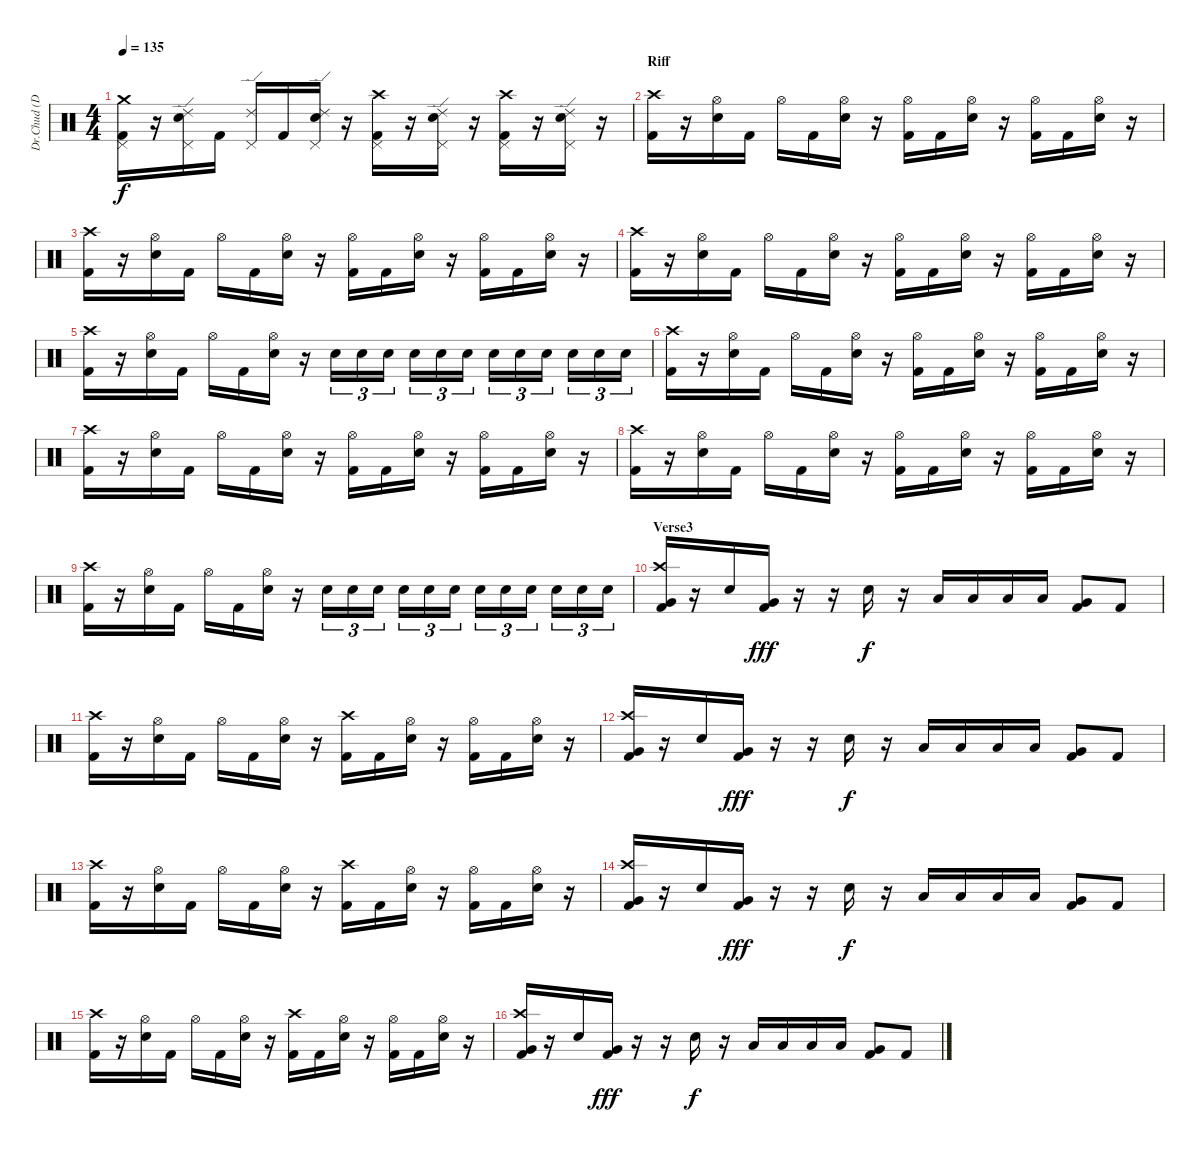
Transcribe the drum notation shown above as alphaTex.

\track ("Dr.Chud (Drums)" "Dr.Chud (D") {instrument percussion}
\staff {score}
\articulation defaults
\ts (4 4)
\tempo 135
\clef neutral
\ks c
("Crash medium (hit)" "Pedal Hi-Hat (hit)" "Kick (hit) 2").16{dy f} r.16 ("Ride (edge) 2" "Snare (hit) 2" "Pedal Hi-Hat (hit)").16 "Kick (hit) 2".16 ("Ride (edge) 2" "Pedal Hi-Hat (hit)").16 "Kick (hit) 2".16 ("Ride (edge) 2" "Snare (hit) 2" "Pedal Hi-Hat (hit)").16 r.16 ("Crash high (hit)" "Pedal Hi-Hat (hit)" "Kick (hit) 2").16 r.16 ("Ride (edge) 2" "Snare (hit) 2" "Pedal Hi-Hat (hit)").16 r.16 ("Crash high (hit)" "Pedal Hi-Hat (hit)" "Kick (hit) 2").16 r.16 ("Ride (edge) 2" "Snare (hit) 2" "Pedal Hi-Hat (hit)").16 r.16 |
\section ("" "Riff")
("Crash high (hit)" "Kick (hit) 2").16 r.16 ("Hi-Hat (open)" "Snare (hit) 2").16 "Kick (hit) 2".16 "Hi-Hat (open)".16 "Kick (hit) 2".16 ("Hi-Hat (open)" "Snare (hit) 2").16 r.16 ("Hi-Hat (open)" "Kick (hit) 2").16 "Kick (hit) 2".16 ("Hi-Hat (open)" "Snare (hit) 2").16 r.16 ("Hi-Hat (open)" "Kick (hit) 2").16 "Kick (hit) 2".16 ("Hi-Hat (open)" "Snare (hit) 2").16 r.16 |
("Crash high (hit)" "Kick (hit) 2").16 r.16 ("Hi-Hat (open)" "Snare (hit) 2").16 "Kick (hit) 2".16 "Hi-Hat (open)".16 "Kick (hit) 2".16 ("Hi-Hat (open)" "Snare (hit) 2").16 r.16 ("Hi-Hat (open)" "Kick (hit) 2").16 "Kick (hit) 2".16 ("Hi-Hat (open)" "Snare (hit) 2").16 r.16 ("Hi-Hat (open)" "Kick (hit) 2").16 "Kick (hit) 2".16 ("Hi-Hat (open)" "Snare (hit) 2").16 r.16 |
("Crash high (hit)" "Kick (hit) 2").16 r.16 ("Hi-Hat (open)" "Snare (hit) 2").16 "Kick (hit) 2".16 "Hi-Hat (open)".16 "Kick (hit) 2".16 ("Hi-Hat (open)" "Snare (hit) 2").16 r.16 ("Hi-Hat (open)" "Kick (hit) 2").16 "Kick (hit) 2".16 ("Hi-Hat (open)" "Snare (hit) 2").16 r.16 ("Hi-Hat (open)" "Kick (hit) 2").16 "Kick (hit) 2".16 ("Hi-Hat (open)" "Snare (hit) 2").16 r.16 |
("Crash high (hit)" "Kick (hit) 2").16 r.16 ("Hi-Hat (open)" "Snare (hit) 2").16 "Kick (hit) 2".16 "Hi-Hat (open)".16 "Kick (hit) 2".16 ("Hi-Hat (open)" "Snare (hit) 2").16 r.16 "Snare (hit) 2".16{tu (3 2)} "Snare (hit) 2".16{tu (3 2)} "Snare (hit) 2".16{tu (3 2)} "Snare (hit) 2".16{tu (3 2)} "Snare (hit) 2".16{tu (3 2)} "Snare (hit) 2".16{tu (3 2)} "Snare (hit) 2".16{tu (3 2)} "Snare (hit) 2".16{tu (3 2)} "Snare (hit) 2".16{tu (3 2)} "Snare (hit) 2".16{tu (3 2)} "Snare (hit) 2".16{tu (3 2)} "Snare (hit) 2".16{tu (3 2)} |
("Crash high (hit)" "Kick (hit) 2").16 r.16 ("Hi-Hat (open)" "Snare (hit) 2").16 "Kick (hit) 2".16 "Hi-Hat (open)".16 "Kick (hit) 2".16 ("Hi-Hat (open)" "Snare (hit) 2").16 r.16 ("Hi-Hat (open)" "Kick (hit) 2").16 "Kick (hit) 2".16 ("Hi-Hat (open)" "Snare (hit) 2").16 r.16 ("Hi-Hat (open)" "Kick (hit) 2").16 "Kick (hit) 2".16 ("Hi-Hat (open)" "Snare (hit) 2").16 r.16 |
("Crash high (hit)" "Kick (hit) 2").16 r.16 ("Hi-Hat (open)" "Snare (hit) 2").16 "Kick (hit) 2".16 "Hi-Hat (open)".16 "Kick (hit) 2".16 ("Hi-Hat (open)" "Snare (hit) 2").16 r.16 ("Hi-Hat (open)" "Kick (hit) 2").16 "Kick (hit) 2".16 ("Hi-Hat (open)" "Snare (hit) 2").16 r.16 ("Hi-Hat (open)" "Kick (hit) 2").16 "Kick (hit) 2".16 ("Hi-Hat (open)" "Snare (hit) 2").16 r.16 |
("Crash high (hit)" "Kick (hit) 2").16 r.16 ("Hi-Hat (open)" "Snare (hit) 2").16 "Kick (hit) 2".16 "Hi-Hat (open)".16 "Kick (hit) 2".16 ("Hi-Hat (open)" "Snare (hit) 2").16 r.16 ("Hi-Hat (open)" "Kick (hit) 2").16 "Kick (hit) 2".16 ("Hi-Hat (open)" "Snare (hit) 2").16 r.16 ("Hi-Hat (open)" "Kick (hit) 2").16 "Kick (hit) 2".16 ("Hi-Hat (open)" "Snare (hit) 2").16 r.16 |
("Crash high (hit)" "Kick (hit) 2").16 r.16 ("Hi-Hat (open)" "Snare (hit) 2").16 "Kick (hit) 2".16 "Hi-Hat (open)".16 "Kick (hit) 2".16 ("Hi-Hat (open)" "Snare (hit) 2").16 r.16 "Snare (hit) 2".16{tu (3 2)} "Snare (hit) 2".16{tu (3 2)} "Snare (hit) 2".16{tu (3 2)} "Snare (hit) 2".16{tu (3 2)} "Snare (hit) 2".16{tu (3 2)} "Snare (hit) 2".16{tu (3 2)} "Snare (hit) 2".16{tu (3 2)} "Snare (hit) 2".16{tu (3 2)} "Snare (hit) 2".16{tu (3 2)} "Snare (hit) 2".16{tu (3 2)} "Snare (hit) 2".16{tu (3 2)} "Snare (hit) 2".16{tu (3 2)} |
\section ("" "Verse3")
("Crash high (hit)" "Very Low Tom (hit)" "Kick (hit) 2").16 r.16 "Snare (hit) 2".16 ("Very Low Tom (hit)" "Kick (hit) 2").16{dy fff} r.16 r.16 "Snare (hit) 2".16{dy f} r.16 "Low Tom (hit)".16 "Low Tom (hit)".16 "Low Tom (hit)".16 "Low Tom (hit)".16 ("Very Low Tom (hit)" "Kick (hit) 2").8 "Kick (hit) 2".8 |
("Crash high (hit)" "Kick (hit) 2").16 r.16 ("Hi-Hat (open)" "Snare (hit) 2").16 "Kick (hit) 2".16 "Hi-Hat (open)".16 "Kick (hit) 2".16 ("Hi-Hat (open)" "Snare (hit) 2").16 r.16 ("Crash high (hit)" "Kick (hit) 2").16 "Kick (hit) 2".16 ("Hi-Hat (open)" "Snare (hit) 2").16 r.16 ("Hi-Hat (open)" "Kick (hit) 2").16 "Kick (hit) 2".16 ("Hi-Hat (open)" "Snare (hit) 2").16 r.16 |
("Crash high (hit)" "Very Low Tom (hit)" "Kick (hit) 2").16 r.16 "Snare (hit) 2".16 ("Very Low Tom (hit)" "Kick (hit) 2").16{dy fff} r.16 r.16 "Snare (hit) 2".16{dy f} r.16 "Low Tom (hit)".16 "Low Tom (hit)".16 "Low Tom (hit)".16 "Low Tom (hit)".16 ("Very Low Tom (hit)" "Kick (hit) 2").8 "Kick (hit) 2".8 |
("Crash high (hit)" "Kick (hit) 2").16 r.16 ("Hi-Hat (open)" "Snare (hit) 2").16 "Kick (hit) 2".16 "Hi-Hat (open)".16 "Kick (hit) 2".16 ("Hi-Hat (open)" "Snare (hit) 2").16 r.16 ("Crash high (hit)" "Kick (hit) 2").16 "Kick (hit) 2".16 ("Hi-Hat (open)" "Snare (hit) 2").16 r.16 ("Hi-Hat (open)" "Kick (hit) 2").16 "Kick (hit) 2".16 ("Hi-Hat (open)" "Snare (hit) 2").16 r.16 |
("Crash high (hit)" "Very Low Tom (hit)" "Kick (hit) 2").16 r.16 "Snare (hit) 2".16 ("Very Low Tom (hit)" "Kick (hit) 2").16{dy fff} r.16 r.16 "Snare (hit) 2".16{dy f} r.16 "Low Tom (hit)".16 "Low Tom (hit)".16 "Low Tom (hit)".16 "Low Tom (hit)".16 ("Very Low Tom (hit)" "Kick (hit) 2").8 "Kick (hit) 2".8 |
("Crash high (hit)" "Kick (hit) 2").16 r.16 ("Hi-Hat (open)" "Snare (hit) 2").16 "Kick (hit) 2".16 "Hi-Hat (open)".16 "Kick (hit) 2".16 ("Hi-Hat (open)" "Snare (hit) 2").16 r.16 ("Crash high (hit)" "Kick (hit) 2").16 "Kick (hit) 2".16 ("Hi-Hat (open)" "Snare (hit) 2").16 r.16 ("Hi-Hat (open)" "Kick (hit) 2").16 "Kick (hit) 2".16 ("Hi-Hat (open)" "Snare (hit) 2").16 r.16 |
("Crash high (hit)" "Very Low Tom (hit)" "Kick (hit) 2").16 r.16 "Snare (hit) 2".16 ("Very Low Tom (hit)" "Kick (hit) 2").16{dy fff} r.16 r.16 "Snare (hit) 2".16{dy f} r.16 "Low Tom (hit)".16 "Low Tom (hit)".16 "Low Tom (hit)".16 "Low Tom (hit)".16 ("Very Low Tom (hit)" "Kick (hit) 2").8 "Kick (hit) 2".8
